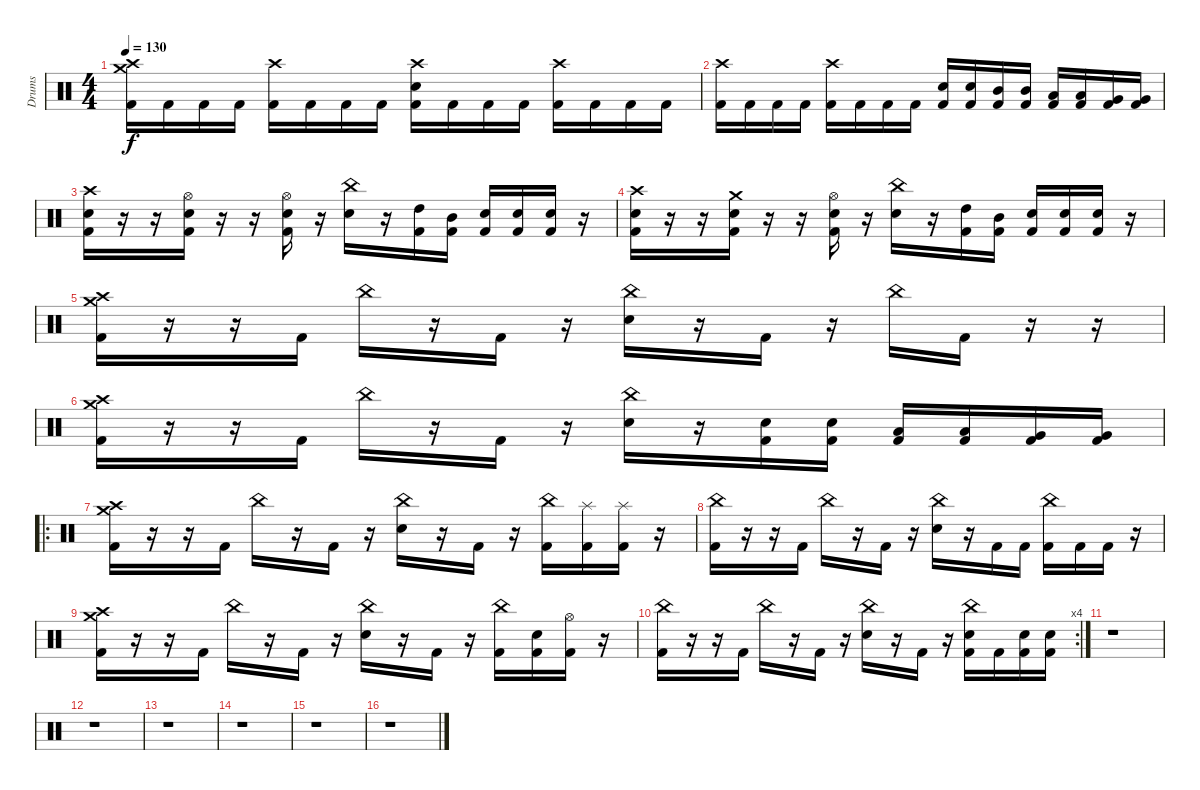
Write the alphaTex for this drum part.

\track ("Drums" "Drums") {instrument percussion}
\staff {score}
\articulation defaults
\ts (4 4)
\tempo 130
\clef neutral
\ks c
("Crash high (hit)" "Crash medium (hit)" "Kick (hit) 2").16{dy f} "Kick (hit) 2".16 "Kick (hit) 2".16 "Kick (hit) 2".16 ("Crash high (hit)" "Kick (hit) 2").16 "Kick (hit) 2".16 "Kick (hit) 2".16 "Kick (hit) 2".16 ("Crash high (hit)" "Electric Snare (hit)" "Kick (hit) 2").16 "Kick (hit) 2".16 "Kick (hit) 2".16 "Kick (hit) 2".16 ("Crash high (hit)" "Kick (hit) 2").16 "Kick (hit) 2".16 "Kick (hit) 2".16 "Kick (hit) 2".16 |
("Crash high (hit)" "Kick (hit) 2").16 "Kick (hit) 2".16 "Kick (hit) 2".16 "Kick (hit) 2".16 ("Crash high (hit)" "Kick (hit) 2").16 "Kick (hit) 2".16 "Kick (hit) 2".16 "Kick (hit) 2".16 ("Electric Snare (hit)" "Kick (hit) 2").16 ("Electric Snare (hit)" "Kick (hit) 2").16 ("Mid Tom (hit)" "Kick (hit) 2").16 ("Mid Tom (hit)" "Kick (hit) 2").16 ("Low Tom (hit)" "Kick (hit) 2").16 ("Low Tom (hit)" "Kick (hit) 2").16 ("Very Low Tom (hit)" "Kick (hit) 2").16 ("Very Low Tom (hit)" "Kick (hit) 2").16 |
("Crash high (hit)" "Electric Snare (hit)" "Kick (hit) 2").16 r.16 r.16 ("Hi-Hat (open)" "Electric Snare (hit)" "Kick (hit) 2").16 r.16 r.16 ("Hi-Hat (open)" "Electric Snare (hit)" "Kick (hit) 2").16 r.16 ("China (hit)" "Electric Snare (hit)").16 r.16 ("High Tom (hit)" "Kick (hit) 2").16 ("Mid Tom (hit)" "Kick (hit) 2").16 ("Electric Snare (hit)" "Kick (hit) 2").16 ("Electric Snare (hit)" "Kick (hit) 2").16 ("Electric Snare (hit)" "Kick (hit) 2").16 r.16 |
("Crash high (hit)" "Electric Snare (hit)" "Kick (hit) 2").16 r.16 r.16 ("Crash medium (hit)" "Electric Snare (hit)" "Kick (hit) 2").16 r.16 r.16 ("Hi-Hat (open)" "Electric Snare (hit)" "Kick (hit) 2").16 r.16 ("China (hit)" "Electric Snare (hit)").16 r.16 ("High Tom (hit)" "Kick (hit) 2").16 ("Mid Tom (hit)" "Kick (hit) 2").16 ("Electric Snare (hit)" "Kick (hit) 2").16 ("Electric Snare (hit)" "Kick (hit) 2").16 ("Electric Snare (hit)" "Kick (hit) 2").16 r.16 |
("Crash high (hit)" "Crash medium (hit)" "Kick (hit) 2").16 r.16 r.16 "Kick (hit) 2".16 "China (hit)".16 r.16 "Kick (hit) 2".16 r.16 ("China (hit)" "Electric Snare (hit)").16 r.16 "Kick (hit) 2".16 r.16 "China (hit)".16 "Kick (hit) 2".16 r.16 r.16 |
("Crash high (hit)" "Crash medium (hit)" "Kick (hit) 2").16 r.16 r.16 "Kick (hit) 2".16 "China (hit)".16 r.16 "Kick (hit) 2".16 r.16 ("China (hit)" "Electric Snare (hit)").16 r.16 ("Electric Snare (hit)" "Kick (hit) 2").16 ("Electric Snare (hit)" "Kick (hit) 2").16 ("Low Tom (hit)" "Kick (hit) 2").16 ("Low Tom (hit)" "Kick (hit) 2").16 ("Very Low Tom (hit)" "Kick (hit) 2").16 ("Very Low Tom (hit)" "Kick (hit) 2").16 |
\ro
("Crash high (hit)" "Crash medium (hit)" "Kick (hit) 2").16 r.16 r.16 "Kick (hit) 2".16 "China (hit)".16 r.16 "Kick (hit) 2".16 r.16 ("China (hit)" "Electric Snare (hit)").16 r.16 "Kick (hit) 2".16 r.16 ("China (hit)" "Kick (hit) 2").16 ("Splash (hit)" "Kick (hit) 2").16 ("Splash (hit)" "Kick (hit) 2").16 r.16 |
("China (hit)" "Kick (hit) 2").16 r.16 r.16 "Kick (hit) 2".16 "China (hit)".16 r.16 "Kick (hit) 2".16 r.16 ("China (hit)" "Electric Snare (hit)").16 r.16 "Kick (hit) 2".16 "Kick (hit) 2".16 ("China (hit)" "Kick (hit) 2").16 "Kick (hit) 2".16 "Kick (hit) 2".16 r.16 |
("Crash high (hit)" "Crash medium (hit)" "Kick (hit) 2").16 r.16 r.16 "Kick (hit) 2".16 "China (hit)".16 r.16 "Kick (hit) 2".16 r.16 ("China (hit)" "Electric Snare (hit)").16 r.16 "Kick (hit) 2".16 r.16 ("China (hit)" "Kick (hit) 2").16 ("Electric Snare (hit)" "Kick (hit) 2").16 ("Hi-Hat (open)" "Kick (hit) 2").16 r.16 |
\rc 4
("China (hit)" "Kick (hit) 2").16 r.16 r.16 "Kick (hit) 2".16 "China (hit)".16 r.16 "Kick (hit) 2".16 r.16 ("China (hit)" "Electric Snare (hit)").16 r.16 "Kick (hit) 2".16 r.16 ("China (hit)" "Electric Snare (hit)" "Kick (hit) 2").16 "Kick (hit) 2".16 ("Electric Snare (hit)" "Kick (hit) 2").16 ("Electric Snare (hit)" "Kick (hit) 2").16 |
r.1 |
r.1 |
r.1 |
r.1 |
r.1 |
r.1
